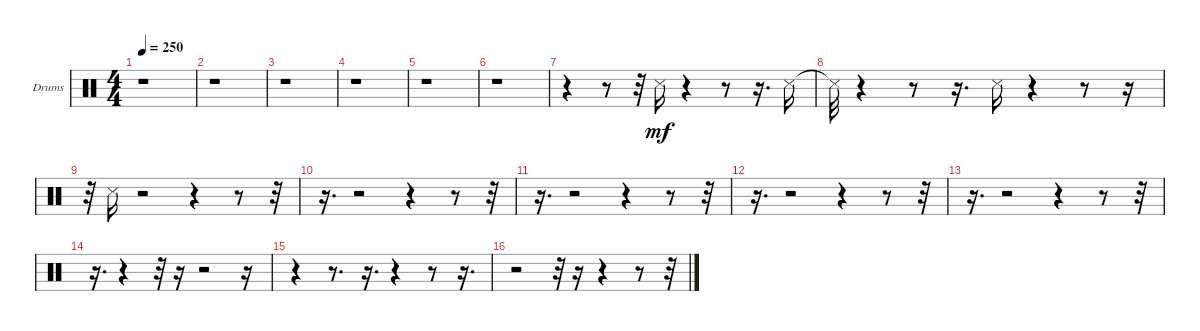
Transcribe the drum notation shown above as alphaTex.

\bracketExtendMode groupsimilarinstruments
\firstSystemTrackNameOrientation horizontal
\otherSystemsTrackNameOrientation horizontal
\track ("Drums" "Drums") {instrument percussion}
\staff {score}
\articulation defaults
\ts (4 4)
\tempo 250
\clef neutral
\ks c
r.1{dy mf} |
r.1 |
r.1 |
r.1 |
r.1 |
r.1 |
r.4 r.8 r.32 "Snare (side stick) 3".16 r.4 r.8 r.16{d} "Snare (side stick) 3".16 |
"Snare (side stick) 3"{t}.32 r.4 r.8 r.16{d} "Snare (side stick) 3".16 r.4 r.8 r.16 |
r.32 "Snare (side stick) 3".16 r.2 r.4 r.8 r.32 |
r.16{d} r.2 r.4 r.8 r.32 |
r.16{d} r.2 r.4 r.8 r.32 |
r.16{d} r.2 r.4 r.8 r.32 |
r.16{d} r.2 r.4 r.8 r.32 |
r.16{d} r.4 r.32 r.16 r.2 r.16 |
r.4 r.8{d} r.16{d} r.4 r.8 r.16{d} |
r.2 r.32 r.16 r.4 r.8 r.32
